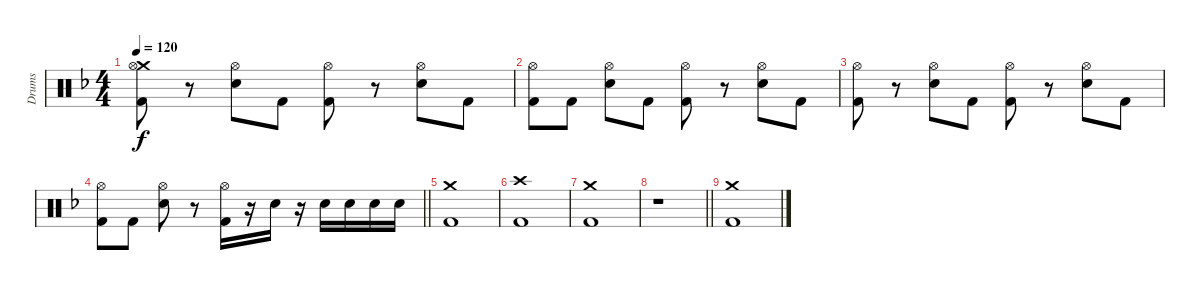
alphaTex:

\track ("Drums" "Drums") {instrument percussion}
\staff {score}
\articulation defaults
\ts (4 4)
\tempo 120
\clef neutral
\ks dminor
("Crash medium (hit)" "Hi-Hat (open)" "Kick (hit) 2").8{dy f} r.8 ("Hi-Hat (open)" "Electric Snare (hit)").8 "Kick (hit) 2".8 ("Hi-Hat (open)" "Kick (hit) 2").8 r.8 ("Hi-Hat (open)" "Electric Snare (hit)").8 "Kick (hit) 2".8 |
("Hi-Hat (open)" "Kick (hit) 2").8 "Kick (hit) 2".8 ("Hi-Hat (open)" "Electric Snare (hit)").8 "Kick (hit) 2".8 ("Hi-Hat (open)" "Kick (hit) 2").8 r.8 ("Hi-Hat (open)" "Electric Snare (hit)").8 "Kick (hit) 2".8 |
("Hi-Hat (open)" "Kick (hit) 2").8 r.8 ("Hi-Hat (open)" "Electric Snare (hit)").8 "Kick (hit) 2".8 ("Hi-Hat (open)" "Kick (hit) 2").8 r.8 ("Hi-Hat (open)" "Electric Snare (hit)").8 "Kick (hit) 2".8 |
\barLineRight lightlight
("Hi-Hat (open)" "Kick (hit) 2").8 "Kick (hit) 2".8 ("Hi-Hat (open)" "Electric Snare (hit)").8 r.8 ("Hi-Hat (open)" "Kick (hit) 2").16 r.16 "Electric Snare (hit)".16 r.16 "Electric Snare (hit)".16 "Electric Snare (hit)".16 "Electric Snare (hit)".16 "Electric Snare (hit)".16 |
\section ("" "")
("Crash medium (hit)" "Kick (hit) 2").1 |
("Crash high (hit)" "Kick (hit) 2").1 |
("Crash medium (hit)" "Kick (hit) 2").1 |
\barLineRight lightlight
r.1 |
\section ("" "")
("Crash medium (hit)" "Kick (hit) 2").1
